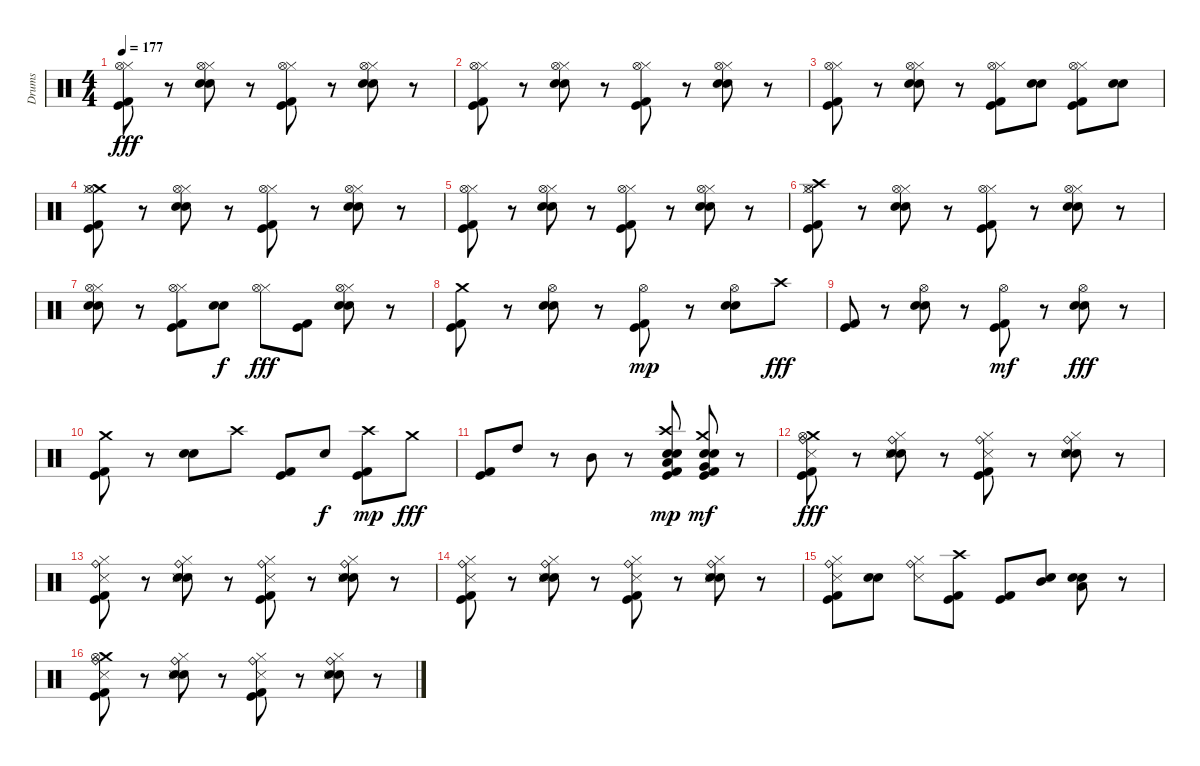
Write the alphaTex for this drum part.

\track ("Drums" "Drums") {instrument percussion}
\staff {score}
\articulation defaults
\ts (4 4)
\tempo 177
\clef neutral
\ks c
("Kick (hit) 2" "Kick (hit)" "Hi-Hat (closed)" "Hi-Hat (open)").8{dy fff} r.8 ("Electric Snare (hit)" "Snare (hit) 2" "Hi-Hat (closed)" "Hi-Hat (open)").8 r.8 ("Kick (hit) 2" "Kick (hit)" "Hi-Hat (closed)" "Hi-Hat (open)").8 r.8 ("Electric Snare (hit)" "Snare (hit) 2" "Hi-Hat (closed)" "Hi-Hat (open)").8 r.8 |
("Kick (hit) 2" "Kick (hit)" "Hi-Hat (closed)" "Hi-Hat (open)").8 r.8 ("Electric Snare (hit)" "Snare (hit) 2" "Hi-Hat (closed)" "Hi-Hat (open)").8 r.8 ("Kick (hit) 2" "Kick (hit)" "Hi-Hat (closed)" "Hi-Hat (open)").8 r.8 ("Electric Snare (hit)" "Snare (hit) 2" "Hi-Hat (closed)" "Hi-Hat (open)").8 r.8 |
("Kick (hit) 2" "Kick (hit)" "Hi-Hat (closed)" "Hi-Hat (open)").8 r.8 ("Electric Snare (hit)" "Snare (hit) 2" "Hi-Hat (closed)" "Hi-Hat (open)").8 r.8 ("Kick (hit) 2" "Kick (hit)" "Hi-Hat (closed)" "Hi-Hat (open)").8 ("Electric Snare (hit)" "Snare (hit) 2").8 ("Hi-Hat (closed)" "Hi-Hat (open)" "Kick (hit) 2" "Kick (hit)").8 ("Electric Snare (hit)" "Snare (hit) 2").8 |
("Crash medium (hit)" "Kick (hit) 2" "Kick (hit)" "Hi-Hat (closed)" "Hi-Hat (open)").8 r.8 ("Electric Snare (hit)" "Snare (hit) 2" "Hi-Hat (closed)" "Hi-Hat (open)").8 r.8 ("Kick (hit) 2" "Kick (hit)" "Hi-Hat (closed)" "Hi-Hat (open)").8 r.8 ("Electric Snare (hit)" "Snare (hit) 2" "Hi-Hat (closed)" "Hi-Hat (open)").8 r.8 |
("Kick (hit) 2" "Kick (hit)" "Hi-Hat (closed)" "Hi-Hat (open)").8 r.8 ("Electric Snare (hit)" "Snare (hit) 2" "Hi-Hat (closed)" "Hi-Hat (open)").8 r.8 ("Kick (hit) 2" "Kick (hit)" "Hi-Hat (closed)" "Hi-Hat (open)").8 r.8 ("Electric Snare (hit)" "Snare (hit) 2" "Hi-Hat (closed)" "Hi-Hat (open)").8 r.8 |
("Crash high (hit)" "Kick (hit) 2" "Kick (hit)" "Hi-Hat (closed)" "Hi-Hat (open)").8 r.8 ("Electric Snare (hit)" "Snare (hit) 2" "Hi-Hat (closed)" "Hi-Hat (open)").8 r.8 ("Kick (hit) 2" "Kick (hit)" "Hi-Hat (closed)" "Hi-Hat (open)").8 r.8 ("Electric Snare (hit)" "Snare (hit) 2" "Hi-Hat (closed)" "Hi-Hat (open)").8 r.8 |
("Hi-Hat (closed)" "Hi-Hat (open)" "Electric Snare (hit)" "Snare (hit) 2").8 r.8 ("Hi-Hat (closed)" "Hi-Hat (open)" "Kick (hit) 2" "Kick (hit)").8 ("Electric Snare (hit)" "Snare (hit) 2").8{dy f} ("Hi-Hat (closed)" "Hi-Hat (open)").8{dy fff} ("Kick (hit) 2" "Kick (hit)").8 ("Electric Snare (hit)" "Snare (hit) 2" "Hi-Hat (closed)" "Hi-Hat (open)").8 r.8 |
("Kick (hit) 2" "Kick (hit)" "Crash medium (hit)").8 r.8 ("Hi-Hat (open)" "Electric Snare (hit)" "Snare (hit) 2").8 r.8 ("Kick (hit) 2" "Kick (hit)" "Hi-Hat (open)").8{dy mp} r.8 ("Electric Snare (hit)" "Snare (hit) 2" "Hi-Hat (open)").8 "Crash high (hit)".8{dy fff} |
("Kick (hit) 2" "Kick (hit)").8 r.8 ("Electric Snare (hit)" "Snare (hit) 2" "Hi-Hat (open)").8 r.8 ("Kick (hit) 2" "Kick (hit)" "Hi-Hat (open)").8{dy mf} r.8 ("Electric Snare (hit)" "Snare (hit) 2" "Hi-Hat (open)").8{dy fff} r.8 |
("Kick (hit) 2" "Kick (hit)" "Crash medium (hit)").8 r.8 ("Electric Snare (hit)" "Snare (hit) 2").8 "Crash high (hit)".8 ("Kick (hit) 2" "Kick (hit)").8 "Electric Snare (hit)".8{dy f} ("Kick (hit) 2" "Kick (hit)" "Crash high (hit)").8{dy mp} "Crash medium (hit)".8{dy fff} |
("Kick (hit) 2" "Kick (hit)").8 "High Tom (hit)".8 r.8 "Mid Tom (hit)".8 r.8 ("Snare (hit) 2" "Electric Snare (hit)" "Kick (hit)" "Kick (hit) 2" "Low Tom (hit)" "Crash high (hit)").8{dy mp} ("Electric Snare (hit)" "Snare (hit) 2" "Kick (hit)" "Kick (hit) 2" "Very Low Tom (hit)" "Crash medium (hit)").8{dy mf} r.8 |
("Crash medium (hit)" "Kick (hit) 2" "Kick (hit)" "Hi-Hat (open)" "Snare (side stick) 3" "Ride (bell)").8{dy fff} r.8 ("Hi-Hat (closed)" "Electric Snare (hit)" "Snare (hit) 2" "Snare (side stick) 3" "Ride (bell)").8 r.8 ("Hi-Hat (closed)" "Kick (hit) 2" "Kick (hit)" "Snare (side stick) 3" "Ride (bell)").8 r.8 ("Hi-Hat (closed)" "Electric Snare (hit)" "Snare (hit) 2" "Snare (side stick) 3" "Ride (bell)").8 r.8 |
("Hi-Hat (closed)" "Kick (hit) 2" "Kick (hit)" "Snare (side stick) 3" "Ride (bell)").8 r.8 ("Hi-Hat (closed)" "Electric Snare (hit)" "Snare (hit) 2" "Snare (side stick) 3" "Ride (bell)").8 r.8 ("Hi-Hat (closed)" "Kick (hit) 2" "Kick (hit)" "Snare (side stick) 3" "Ride (bell)").8 r.8 ("Hi-Hat (closed)" "Electric Snare (hit)" "Snare (hit) 2" "Snare (side stick) 3" "Ride (bell)").8 r.8 |
("Hi-Hat (closed)" "Kick (hit) 2" "Kick (hit)" "Ride (bell)" "Snare (side stick) 3").8 r.8 ("Hi-Hat (closed)" "Electric Snare (hit)" "Snare (hit) 2" "Ride (bell)" "Snare (side stick) 3").8 r.8 ("Hi-Hat (closed)" "Kick (hit) 2" "Kick (hit)" "Ride (bell)" "Snare (side stick) 3").8 r.8 ("Hi-Hat (closed)" "Electric Snare (hit)" "Snare (hit) 2" "Ride (bell)" "Snare (side stick) 3").8 r.8 |
("Kick (hit) 2" "Kick (hit)" "Ride (bell)" "Hi-Hat (closed)" "Snare (side stick) 3").8 ("Electric Snare (hit)" "Snare (hit) 2").8 ("Ride (bell)" "Hi-Hat (closed)" "Snare (side stick) 3").8 ("Kick (hit) 2" "Kick (hit)" "Crash high (hit)").8 ("Kick (hit) 2" "Kick (hit)").8 ("Electric Snare (hit)" "Mid Tom (hit)").8 ("Electric Snare (hit)" "Snare (hit) 2" "Low Tom (hit)").8 r.8 |
("Crash medium (hit)" "Kick (hit) 2" "Kick (hit)" "Hi-Hat (open)" "Snare (side stick) 3" "Ride (bell)").8 r.8 ("Hi-Hat (closed)" "Electric Snare (hit)" "Snare (hit) 2" "Snare (side stick) 3" "Ride (bell)").8 r.8 ("Hi-Hat (closed)" "Kick (hit) 2" "Kick (hit)" "Snare (side stick) 3" "Ride (bell)").8 r.8 ("Hi-Hat (closed)" "Electric Snare (hit)" "Snare (hit) 2" "Snare (side stick) 3" "Ride (bell)").8 r.8
